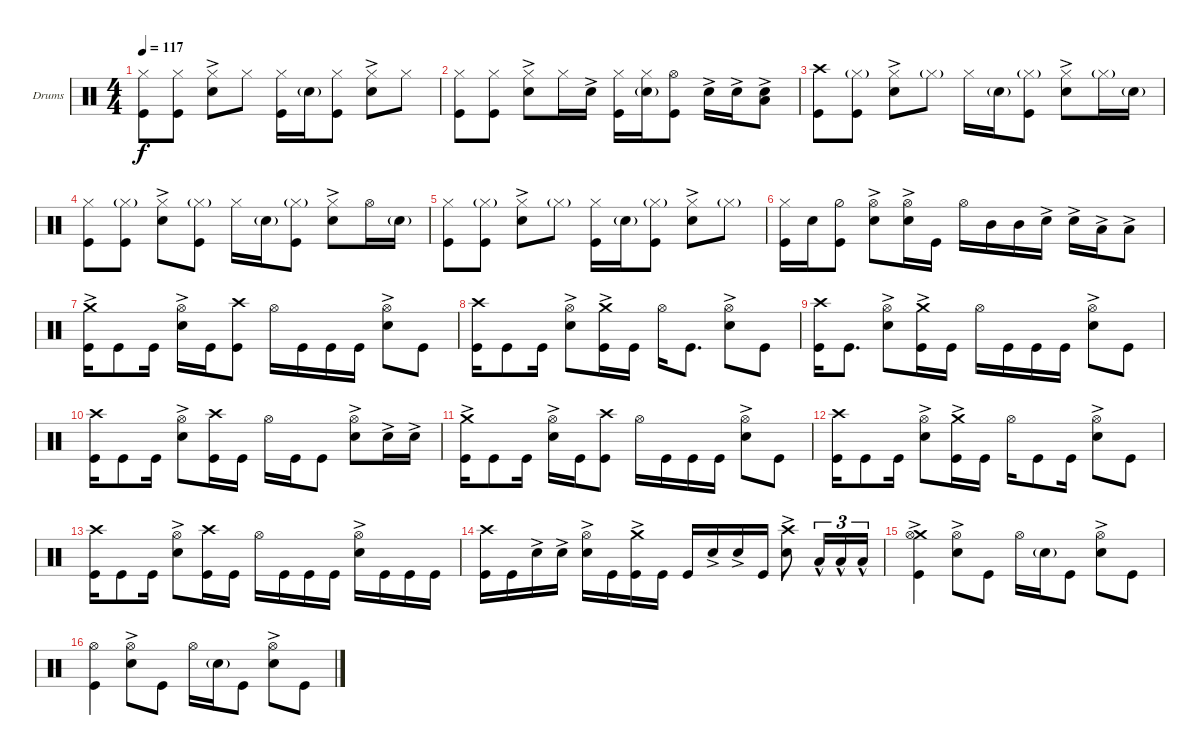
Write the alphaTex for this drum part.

\bracketExtendMode groupsimilarinstruments
\firstSystemTrackNameOrientation horizontal
\otherSystemsTrackNameOrientation horizontal
\track ("Drumkit" "Drums") {instrument percussion}
\staff {score}
\articulation defaults
\ts (4 4)
\tempo 117
\clef neutral
\ks c
("Hi-Hat (closed)" "Kick (hit)").8{dy f} ("Hi-Hat (closed)" "Kick (hit)").8 ("Hi-Hat (closed)" "Snare (hit) 2"{ac}).8 "Hi-Hat (closed)".8 ("Hi-Hat (closed)" "Kick (hit)").16 "Snare (hit) 2"{g}.16 ("Hi-Hat (closed)" "Kick (hit)").8 ("Hi-Hat (closed)" "Snare (hit) 2"{ac}).8 "Hi-Hat (closed)".8 |
("Hi-Hat (closed)" "Kick (hit)").8 ("Hi-Hat (closed)" "Kick (hit)").8 ("Hi-Hat (closed)" "Snare (hit) 2"{ac}).8 "Hi-Hat (closed)".16 "Snare (hit) 2"{ac}.16 ("Hi-Hat (closed)" "Kick (hit)").16 ("Snare (hit) 2"{g} "Hi-Hat (closed)").16 ("Hi-Hat (open)" "Kick (hit)").8 "Snare (hit) 2"{ac}.16 "Snare (hit) 2"{ac}.16 ("Snare (hit) 2"{ac} "Low Tom (hit)"{ac}).8 |
("Crash high (hit)" "Kick (hit)").8 ("Hi-Hat (closed)"{g} "Kick (hit)").8 ("Hi-Hat (closed)" "Snare (hit) 2"{ac}).8 "Hi-Hat (closed)"{g}.8 "Hi-Hat (closed)".16 "Snare (hit) 2"{g}.16 ("Hi-Hat (closed)"{g} "Kick (hit)").8 ("Hi-Hat (closed)" "Snare (hit) 2"{ac}).8 "Hi-Hat (closed)"{g}.16 "Snare (hit) 2"{g}.16 |
("Hi-Hat (closed)" "Kick (hit)").8 ("Hi-Hat (closed)"{g} "Kick (hit)").8 ("Hi-Hat (closed)" "Snare (hit) 2"{ac}).8 ("Hi-Hat (closed)"{g} "Kick (hit)").8 "Hi-Hat (closed)".16 "Snare (hit) 2"{g}.16 ("Hi-Hat (closed)"{g} "Kick (hit)").8 ("Hi-Hat (closed)" "Snare (hit) 2"{ac}).8 "Hi-Hat (open)".16 "Snare (hit) 2"{g}.16 |
("Hi-Hat (closed)" "Kick (hit)").8 ("Hi-Hat (closed)"{g} "Kick (hit)").8 ("Hi-Hat (closed)" "Snare (hit) 2"{ac}).8 "Hi-Hat (closed)"{g}.8 ("Hi-Hat (closed)" "Kick (hit)").16 "Snare (hit) 2"{g}.16 ("Hi-Hat (closed)"{g} "Kick (hit)").8 ("Hi-Hat (closed)" "Snare (hit) 2"{ac}).8 "Hi-Hat (closed)"{g}.8 |
("Hi-Hat (closed)" "Kick (hit)").16 "Snare (hit) 2".16 ("Hi-Hat (half)" "Kick (hit)").8 ("Hi-Hat (open)" "Snare (hit) 2"{ac}).8 ("Hi-Hat (open)" "Snare (hit) 2"{ac}).16 "Kick (hit)".16 "Hi-Hat (open)".16 "Mid Tom (hit)".16 "Mid Tom (hit)".16 "Snare (hit) 2"{ac}.16 "Snare (hit) 2"{ac}.16 "Low Tom (hit)"{ac}.16 "Low Tom (hit)"{ac}.8 |
("Crash medium (hit)"{ac} "Kick (hit)").16 "Kick (hit)".8 "Kick (hit)".16 ("Snare (hit) 2"{ac} "Hi-Hat (open)").16 "Kick (hit)".16 ("Kick (hit)" "Crash high (hit)").8 "Hi-Hat (open)".16 "Kick (hit)".16 "Kick (hit)".16 "Kick (hit)".16 ("Snare (hit) 2"{ac} "Hi-Hat (open)").8 "Kick (hit)".8 |
("Kick (hit)" "Crash high (hit)").16 "Kick (hit)".8 "Kick (hit)".16 ("Snare (hit) 2"{ac} "Hi-Hat (open)").8 ("Kick (hit)" "Crash medium (hit)"{ac}).16 "Kick (hit)".16 "Hi-Hat (open)".16 "Kick (hit)".8{d} ("Snare (hit) 2"{ac} "Hi-Hat (open)").8 "Kick (hit)".8 |
("Kick (hit)" "Crash high (hit)").16 "Kick (hit)".8{d} ("Snare (hit) 2"{ac} "Hi-Hat (open)").8 ("Kick (hit)" "Crash medium (hit)"{ac}).16 "Kick (hit)".16 "Hi-Hat (open)".16 "Kick (hit)".16 "Kick (hit)".16 "Kick (hit)".16 ("Snare (hit) 2"{ac} "Hi-Hat (open)").8 "Kick (hit)".8 |
("Kick (hit)" "Crash high (hit)").16 "Kick (hit)".8 "Kick (hit)".16 ("Snare (hit) 2"{ac} "Hi-Hat (open)").8 ("Kick (hit)" "Crash high (hit)").16 "Kick (hit)".16 "Hi-Hat (open)".16 "Kick (hit)".16 "Kick (hit)".8 ("Snare (hit) 2"{ac} "Hi-Hat (open)").8 "Snare (hit) 2"{ac}.16 "Snare (hit) 2"{ac}.16 |
("Crash medium (hit)"{ac} "Kick (hit)").16 "Kick (hit)".8 "Kick (hit)".16 ("Snare (hit) 2"{ac} "Hi-Hat (open)").16 "Kick (hit)".16 ("Kick (hit)" "Crash high (hit)").8 "Hi-Hat (open)".16 "Kick (hit)".16 "Kick (hit)".16 "Kick (hit)".16 ("Snare (hit) 2"{ac} "Hi-Hat (open)").8 "Kick (hit)".8 |
("Kick (hit)" "Crash high (hit)").16 "Kick (hit)".8 "Kick (hit)".16 ("Snare (hit) 2"{ac} "Hi-Hat (open)").8 ("Kick (hit)" "Crash medium (hit)"{ac}).16 "Kick (hit)".16 "Hi-Hat (open)".16 "Kick (hit)".8 "Kick (hit)".16 ("Snare (hit) 2"{ac} "Hi-Hat (open)").8 "Kick (hit)".8 |
("Kick (hit)" "Crash high (hit)").16 "Kick (hit)".8 "Kick (hit)".16 ("Snare (hit) 2"{ac} "Hi-Hat (open)").8 ("Kick (hit)" "Crash high (hit)").16 "Kick (hit)".16 "Hi-Hat (open)".16 "Kick (hit)".16 "Kick (hit)".16 "Kick (hit)".16 ("Snare (hit) 2"{ac} "Hi-Hat (open)").16 "Kick (hit)".16 "Kick (hit)".16 "Kick (hit)".16 |
("Kick (hit)" "Crash high (hit)").16 "Kick (hit)".16 "Snare (hit) 2"{ac}.16 "Snare (hit) 2"{ac}.16 ("Snare (hit) 2"{ac} "Hi-Hat (open)").16 "Kick (hit)".16 ("Kick (hit)" "Crash medium (hit)"{ac}).16 "Kick (hit)".16 "Kick (hit)".16 "Snare (hit) 2"{ac}.16 "Snare (hit) 2"{ac}.16 "Kick (hit)".16 ("Snare (hit) 2"{ac} "Crash high (hit)").8 "Low Tom (hit)"{hac}.16{tu (3 2)} "Low Tom (hit)"{hac}.16{tu (3 2)} "Low Tom (hit)"{hac}.16{tu (3 2)} |
("Crash medium (hit)"{ac} "Hi-Hat (open)" "Kick (hit)").4 ("Hi-Hat (open)" "Snare (hit) 2"{ac}).8 "Kick (hit)".8 "Hi-Hat (open)".16 "Snare (hit) 2"{g}.16 "Kick (hit)".8 ("Hi-Hat (open)" "Snare (hit) 2"{ac}).8 "Kick (hit)".8 |
("Kick (hit)" "Hi-Hat (open)").4 ("Hi-Hat (open)" "Snare (hit) 2"{ac}).8 "Kick (hit)".8 "Hi-Hat (open)".16 "Snare (hit) 2"{g}.16 "Kick (hit)".8 ("Hi-Hat (open)" "Snare (hit) 2"{ac}).8 "Kick (hit)".8
